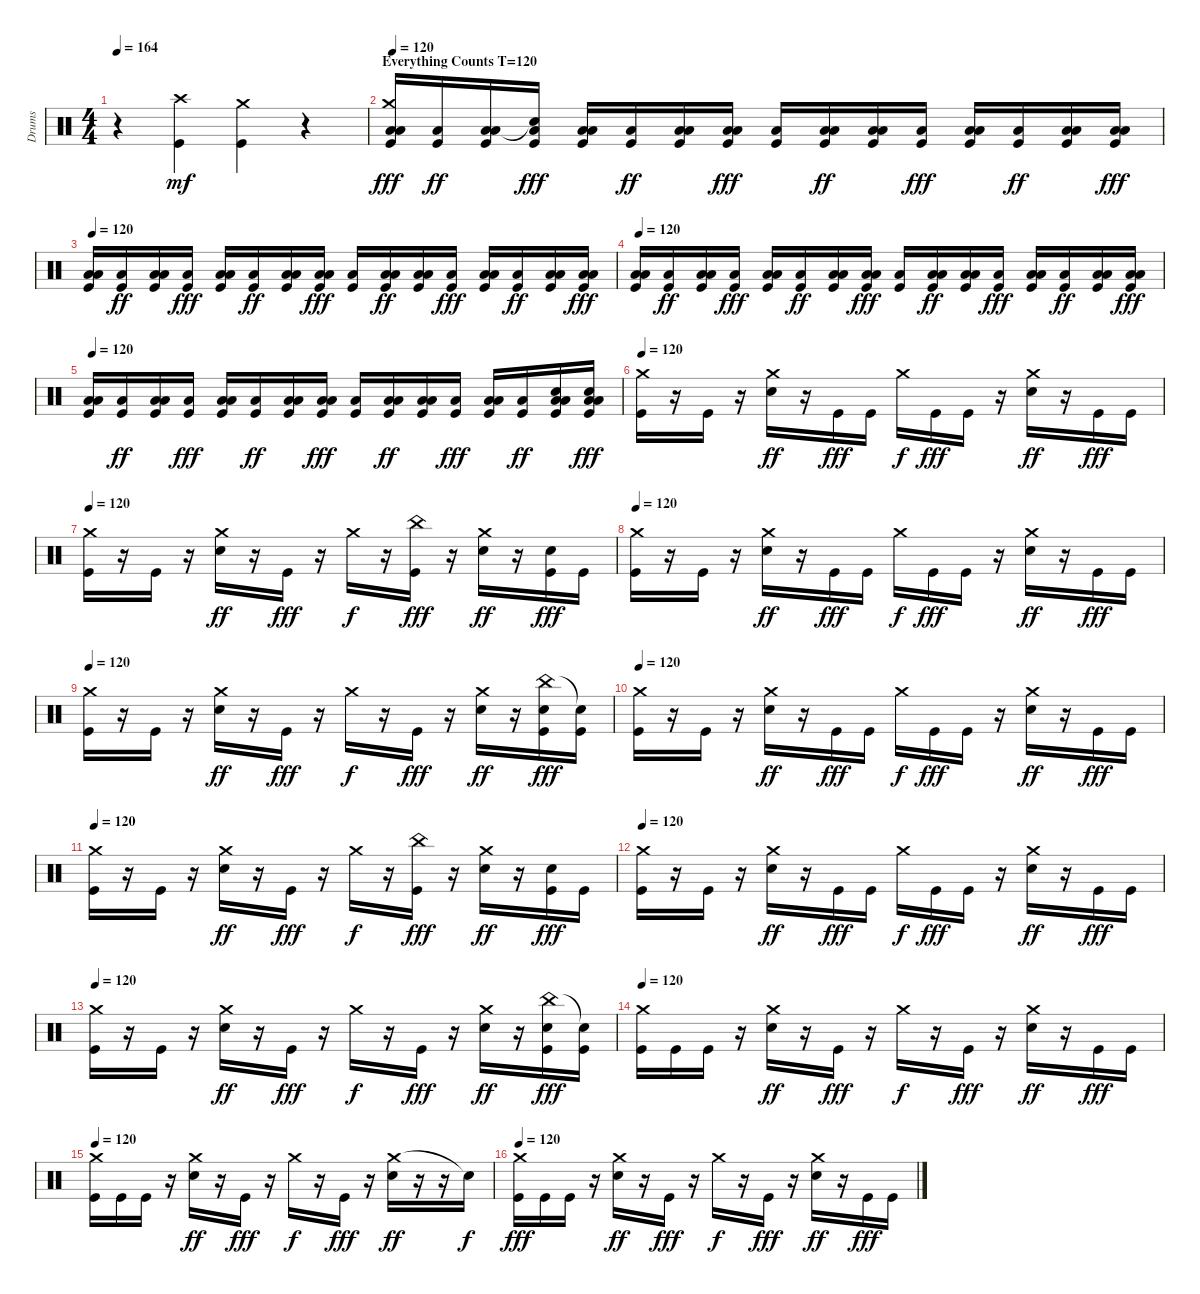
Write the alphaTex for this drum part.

\track ("Drums" "Drums") {instrument percussion}
\staff {score}
\articulation defaults
\ts (4 4)
\tempo 164
\clef neutral
\ks c
r.4{dy mf} ("Kick (hit)" "Crash high (hit)").4 ("Kick (hit)" "Crash medium (hit)").4 r.4 |
\section ("" "Everything Counts T=120")
\tempo 120
("Crash medium (hit)" "Low Floor Tom (hit)" "Low Tom (hit)" "Kick (hit)").16{dy fff} ("Low Floor Tom (hit)" "Kick (hit)").16{dy ff} ("Low Floor Tom (hit)" "Low Floor Tom (hit)" "Kick (hit)").16 ("Snare (hit)"{t} "Low Floor Tom (hit)" "Kick (hit)").16{dy fff} ("Low Floor Tom (hit)" "Low Floor Tom (hit)" "Kick (hit)").16 ("Low Floor Tom (hit)" "Kick (hit)").16{dy ff} ("Low Floor Tom (hit)" "Low Floor Tom (hit)" "Kick (hit)").16 ("Low Floor Tom (hit)" "Low Floor Tom (hit)" "Kick (hit)").16{dy fff} ("Low Floor Tom (hit)" "Kick (hit)").16 ("Low Floor Tom (hit)" "Low Floor Tom (hit)" "Kick (hit)").16{dy ff} ("Low Floor Tom (hit)" "Low Floor Tom (hit)" "Kick (hit)").16 ("Low Floor Tom (hit)" "Kick (hit)").16{dy fff} ("Low Floor Tom (hit)" "Low Floor Tom (hit)" "Kick (hit)").16 ("Low Floor Tom (hit)" "Kick (hit)").16{dy ff} ("Low Floor Tom (hit)" "Low Floor Tom (hit)" "Kick (hit)").16 ("Low Floor Tom (hit)" "Low Floor Tom (hit)" "Kick (hit)").16{dy fff} |
\tempo 120
("Low Floor Tom (hit)" "Low Tom (hit)" "Kick (hit)").16 ("Low Floor Tom (hit)" "Kick (hit)").16{dy ff} ("Low Floor Tom (hit)" "Low Floor Tom (hit)" "Kick (hit)").16 ("Low Floor Tom (hit)" "Kick (hit)").16{dy fff} ("Low Floor Tom (hit)" "Low Floor Tom (hit)" "Kick (hit)").16 ("Low Floor Tom (hit)" "Kick (hit)").16{dy ff} ("Low Floor Tom (hit)" "Low Floor Tom (hit)" "Kick (hit)").16 ("Low Floor Tom (hit)" "Low Floor Tom (hit)" "Kick (hit)").16{dy fff} ("Low Floor Tom (hit)" "Kick (hit)").16 ("Low Floor Tom (hit)" "Low Floor Tom (hit)" "Kick (hit)").16{dy ff} ("Low Floor Tom (hit)" "Low Floor Tom (hit)" "Kick (hit)").16 ("Low Floor Tom (hit)" "Kick (hit)").16{dy fff} ("Low Floor Tom (hit)" "Low Floor Tom (hit)" "Kick (hit)").16 ("Low Floor Tom (hit)" "Kick (hit)").16{dy ff} ("Low Floor Tom (hit)" "Low Floor Tom (hit)" "Kick (hit)").16 ("Low Floor Tom (hit)" "Low Floor Tom (hit)" "Kick (hit)").16{dy fff} |
\tempo 120
("Low Floor Tom (hit)" "Low Tom (hit)" "Kick (hit)").16 ("Low Floor Tom (hit)" "Kick (hit)").16{dy ff} ("Low Floor Tom (hit)" "Low Floor Tom (hit)" "Kick (hit)").16 ("Low Floor Tom (hit)" "Kick (hit)").16{dy fff} ("Low Floor Tom (hit)" "Low Floor Tom (hit)" "Kick (hit)").16 ("Low Floor Tom (hit)" "Kick (hit)").16{dy ff} ("Low Floor Tom (hit)" "Low Floor Tom (hit)" "Kick (hit)").16 ("Low Floor Tom (hit)" "Low Floor Tom (hit)" "Kick (hit)").16{dy fff} ("Low Floor Tom (hit)" "Kick (hit)").16 ("Low Floor Tom (hit)" "Low Floor Tom (hit)" "Kick (hit)").16{dy ff} ("Low Floor Tom (hit)" "Low Floor Tom (hit)" "Kick (hit)").16 ("Low Floor Tom (hit)" "Kick (hit)").16{dy fff} ("Low Floor Tom (hit)" "Low Floor Tom (hit)" "Kick (hit)").16 ("Low Floor Tom (hit)" "Kick (hit)").16{dy ff} ("Low Floor Tom (hit)" "Low Floor Tom (hit)" "Kick (hit)").16 ("Low Floor Tom (hit)" "Low Floor Tom (hit)" "Kick (hit)").16{dy fff} |
\tempo 120
("Low Floor Tom (hit)" "Low Tom (hit)" "Kick (hit)").16 ("Low Floor Tom (hit)" "Kick (hit)").16{dy ff} ("Low Floor Tom (hit)" "Low Floor Tom (hit)" "Kick (hit)").16 ("Low Floor Tom (hit)" "Kick (hit)").16{dy fff} ("Low Floor Tom (hit)" "Low Floor Tom (hit)" "Kick (hit)").16 ("Low Floor Tom (hit)" "Kick (hit)").16{dy ff} ("Low Floor Tom (hit)" "Low Floor Tom (hit)" "Kick (hit)").16 ("Low Floor Tom (hit)" "Low Floor Tom (hit)" "Kick (hit)").16{dy fff} ("Low Floor Tom (hit)" "Kick (hit)").16 ("Low Floor Tom (hit)" "Low Floor Tom (hit)" "Kick (hit)").16{dy ff} ("Low Floor Tom (hit)" "Low Floor Tom (hit)" "Kick (hit)").16 ("Low Floor Tom (hit)" "Kick (hit)").16{dy fff} ("Low Floor Tom (hit)" "Low Floor Tom (hit)" "Kick (hit)").16 ("Low Floor Tom (hit)" "Kick (hit)").16{dy ff} ("Snare (hit) 2" "Low Floor Tom (hit)" "Low Floor Tom (hit)" "Kick (hit)").16 ("Snare (hit) 2" "Low Floor Tom (hit)" "Low Floor Tom (hit)" "Kick (hit)").16{dy fff} |
\tempo 120
("Crash medium (hit)" "Kick (hit)").16 r.16 "Kick (hit)".16 r.16 ("Crash medium (hit)" "Electric Snare (hit)").16{dy ff} r.16 "Kick (hit)".16{dy fff} "Kick (hit)".16 "Crash medium (hit)".16{dy f} "Kick (hit)".16{dy fff} "Kick (hit)".16 r.16 ("Crash medium (hit)" "Electric Snare (hit)").16{dy ff} r.16 "Kick (hit)".16{dy fff} "Kick (hit)".16 |
\tempo 120
("Crash medium (hit)" "Kick (hit)").16 r.16 "Kick (hit)".16 r.16 ("Crash medium (hit)" "Electric Snare (hit)").16{dy ff} r.16 "Kick (hit)".16{dy fff} r.16 "Crash medium (hit)".16{dy f} r.16 ("China (hit)" "Kick (hit)").16{dy fff} r.16 ("Crash medium (hit)" "Electric Snare (hit)").16{dy ff} r.16 ("Electric Snare (hit)" "Kick (hit)").16{dy fff} "Kick (hit)".16 |
\tempo 120
("Crash medium (hit)" "Kick (hit)").16 r.16 "Kick (hit)".16 r.16 ("Crash medium (hit)" "Electric Snare (hit)").16{dy ff} r.16 "Kick (hit)".16{dy fff} "Kick (hit)".16 "Crash medium (hit)".16{dy f} "Kick (hit)".16{dy fff} "Kick (hit)".16 r.16 ("Crash medium (hit)" "Electric Snare (hit)").16{dy ff} r.16 "Kick (hit)".16{dy fff} "Kick (hit)".16 |
\tempo 120
("Crash medium (hit)" "Kick (hit)").16 r.16 "Kick (hit)".16 r.16 ("Crash medium (hit)" "Electric Snare (hit)").16{dy ff} r.16 "Kick (hit)".16{dy fff} r.16 "Crash medium (hit)".16{dy f} r.16 "Kick (hit)".16{dy fff} r.16 ("Crash medium (hit)" "Electric Snare (hit)").16{dy ff} r.16 ("China (hit)" "Electric Snare (hit)" "Kick (hit)").16{dy fff} ("Snare (hit)"{t} "Kick (hit)").16 |
\tempo 120
("Crash medium (hit)" "Kick (hit)").16 r.16 "Kick (hit)".16 r.16 ("Crash medium (hit)" "Electric Snare (hit)").16{dy ff} r.16 "Kick (hit)".16{dy fff} "Kick (hit)".16 "Crash medium (hit)".16{dy f} "Kick (hit)".16{dy fff} "Kick (hit)".16 r.16 ("Crash medium (hit)" "Electric Snare (hit)").16{dy ff} r.16 "Kick (hit)".16{dy fff} "Kick (hit)".16 |
\tempo 120
("Crash medium (hit)" "Kick (hit)").16 r.16 "Kick (hit)".16 r.16 ("Crash medium (hit)" "Electric Snare (hit)").16{dy ff} r.16 "Kick (hit)".16{dy fff} r.16 "Crash medium (hit)".16{dy f} r.16 ("China (hit)" "Kick (hit)").16{dy fff} r.16 ("Crash medium (hit)" "Electric Snare (hit)").16{dy ff} r.16 ("Electric Snare (hit)" "Kick (hit)").16{dy fff} "Kick (hit)".16 |
\tempo 120
("Crash medium (hit)" "Kick (hit)").16 r.16 "Kick (hit)".16 r.16 ("Crash medium (hit)" "Electric Snare (hit)").16{dy ff} r.16 "Kick (hit)".16{dy fff} "Kick (hit)".16 "Crash medium (hit)".16{dy f} "Kick (hit)".16{dy fff} "Kick (hit)".16 r.16 ("Crash medium (hit)" "Electric Snare (hit)").16{dy ff} r.16 "Kick (hit)".16{dy fff} "Kick (hit)".16 |
\tempo 120
("Crash medium (hit)" "Kick (hit)").16 r.16 "Kick (hit)".16 r.16 ("Crash medium (hit)" "Electric Snare (hit)").16{dy ff} r.16 "Kick (hit)".16{dy fff} r.16 "Crash medium (hit)".16{dy f} r.16 "Kick (hit)".16{dy fff} r.16 ("Crash medium (hit)" "Electric Snare (hit)").16{dy ff} r.16 ("China (hit)" "Electric Snare (hit)" "Kick (hit)").16{dy fff} ("Snare (hit)"{t} "Kick (hit)").16 |
\tempo 120
("Crash medium (hit)" "Kick (hit)").16 "Kick (hit)".16 "Kick (hit)".16 r.16 ("Crash medium (hit)" "Electric Snare (hit)").16{dy ff} r.16 "Kick (hit)".16{dy fff} r.16 "Crash medium (hit)".16{dy f} r.16 "Kick (hit)".16{dy fff} r.16 ("Crash medium (hit)" "Electric Snare (hit)").16{dy ff} r.16 "Kick (hit)".16{dy fff} "Kick (hit)".16 |
\tempo 120
("Crash medium (hit)" "Kick (hit)").16 "Kick (hit)".16 "Kick (hit)".16 r.16 ("Crash medium (hit)" "Electric Snare (hit)").16{dy ff} r.16 "Kick (hit)".16{dy fff} r.16 "Crash medium (hit)".16{dy f} r.16 "Kick (hit)".16{dy fff} r.16 ("Crash medium (hit)" "Electric Snare (hit)").16{dy ff} r.16 r.16 "Snare (hit)"{t}.16{dy f} |
\tempo 120
("Crash medium (hit)" "Kick (hit)").16{dy fff} "Kick (hit)".16 "Kick (hit)".16 r.16 ("Crash medium (hit)" "Electric Snare (hit)").16{dy ff} r.16 "Kick (hit)".16{dy fff} r.16 "Crash medium (hit)".16{dy f} r.16 "Kick (hit)".16{dy fff} r.16 ("Crash medium (hit)" "Electric Snare (hit)").16{dy ff} r.16 "Kick (hit)".16{dy fff} "Kick (hit)".16
